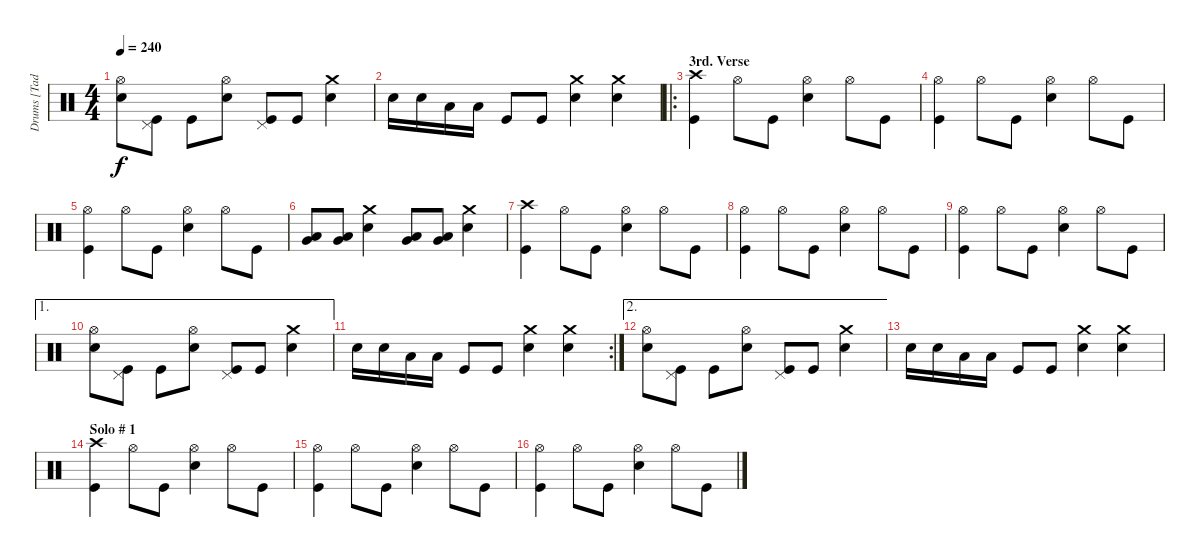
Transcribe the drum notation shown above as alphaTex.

\track ("Drums [Tad Leger]" "Drums [Tad") {instrument percussion}
\staff {score}
\articulation defaults
\ts (4 4)
\tempo 240
\clef neutral
\ks c
("Hi-Hat (open)" "Electric Snare (hit)").8{dy f} ("Pedal Hi-Hat (hit)" "Kick (hit)").8 "Kick (hit)".8 ("Hi-Hat (open)" "Electric Snare (hit)").8 ("Pedal Hi-Hat (hit)" "Kick (hit)").8 "Kick (hit)".8 ("Crash medium (hit)" "Electric Snare (hit)").4 |
"Electric Snare (hit)".16 "Electric Snare (hit)".16 "Low Tom (hit)".16 "Low Tom (hit)".16 "Kick (hit)".8 "Kick (hit)".8 ("Crash medium (hit)" "Electric Snare (hit)").4 ("Crash medium (hit)" "Electric Snare (hit)").4 |
\ro
\section ("" "3rd. Verse")
("Crash high (hit)" "Kick (hit)").4 "Hi-Hat (open)".8 "Kick (hit)".8 ("Hi-Hat (open)" "Electric Snare (hit)").4 "Hi-Hat (open)".8 "Kick (hit)".8 |
("Hi-Hat (open)" "Kick (hit)").4 "Hi-Hat (open)".8 "Kick (hit)".8 ("Hi-Hat (open)" "Electric Snare (hit)").4 "Hi-Hat (open)".8 "Kick (hit)".8 |
("Hi-Hat (open)" "Kick (hit)").4 "Hi-Hat (open)".8 "Kick (hit)".8 ("Hi-Hat (open)" "Electric Snare (hit)").4 "Hi-Hat (open)".8 "Kick (hit)".8 |
("Very Low Tom (hit)" "Low Tom (hit)").8 ("Very Low Tom (hit)" "Low Tom (hit)").8 ("Crash medium (hit)" "Electric Snare (hit)").4 ("Very Low Tom (hit)" "Low Tom (hit)").8 ("Very Low Tom (hit)" "Low Tom (hit)").8 ("Crash medium (hit)" "Electric Snare (hit)").4 |
("Crash high (hit)" "Kick (hit)").4 "Hi-Hat (open)".8 "Kick (hit)".8 ("Hi-Hat (open)" "Electric Snare (hit)").4 "Hi-Hat (open)".8 "Kick (hit)".8 |
("Hi-Hat (open)" "Kick (hit)").4 "Hi-Hat (open)".8 "Kick (hit)".8 ("Hi-Hat (open)" "Electric Snare (hit)").4 "Hi-Hat (open)".8 "Kick (hit)".8 |
("Hi-Hat (open)" "Kick (hit)").4 "Hi-Hat (open)".8 "Kick (hit)".8 ("Hi-Hat (open)" "Electric Snare (hit)").4 "Hi-Hat (open)".8 "Kick (hit)".8 |
\ae 1
("Hi-Hat (open)" "Electric Snare (hit)").8 ("Pedal Hi-Hat (hit)" "Kick (hit)").8 "Kick (hit)".8 ("Hi-Hat (open)" "Electric Snare (hit)").8 ("Pedal Hi-Hat (hit)" "Kick (hit)").8 "Kick (hit)".8 ("Crash medium (hit)" "Electric Snare (hit)").4 |
\rc 2 "Electric Snare (hit)".16 "Electric Snare (hit)".16 "Low Tom (hit)".16 "Low Tom (hit)".16 "Kick (hit)".8 "Kick (hit)".8
("Crash medium (hit)" "Electric Snare (hit)").4 ("Crash medium (hit)" "Electric Snare (hit)").4 |
\ae 2
("Hi-Hat (open)" "Electric Snare (hit)").8 ("Pedal Hi-Hat (hit)" "Kick (hit)").8 "Kick (hit)".8 ("Hi-Hat (open)" "Electric Snare (hit)").8 ("Pedal Hi-Hat (hit)" "Kick (hit)").8 "Kick (hit)".8 ("Crash medium (hit)" "Electric Snare (hit)").4 |
"Electric Snare (hit)".16 "Electric Snare (hit)".16 "Low Tom (hit)".16 "Low Tom (hit)".16 "Kick (hit)".8 "Kick (hit)".8 ("Crash medium (hit)" "Electric Snare (hit)").4 ("Crash medium (hit)" "Electric Snare (hit)").4 |
\section ("" "Solo # 1")
("Crash high (hit)" "Kick (hit)").4 "Hi-Hat (open)".8 "Kick (hit)".8 ("Hi-Hat (open)" "Electric Snare (hit)").4 "Hi-Hat (open)".8 "Kick (hit)".8 |
("Hi-Hat (open)" "Kick (hit)").4 "Hi-Hat (open)".8 "Kick (hit)".8 ("Hi-Hat (open)" "Electric Snare (hit)").4 "Hi-Hat (open)".8 "Kick (hit)".8 |
("Hi-Hat (open)" "Kick (hit)").4 "Hi-Hat (open)".8 "Kick (hit)".8 ("Hi-Hat (open)" "Electric Snare (hit)").4 "Hi-Hat (open)".8 "Kick (hit)".8
